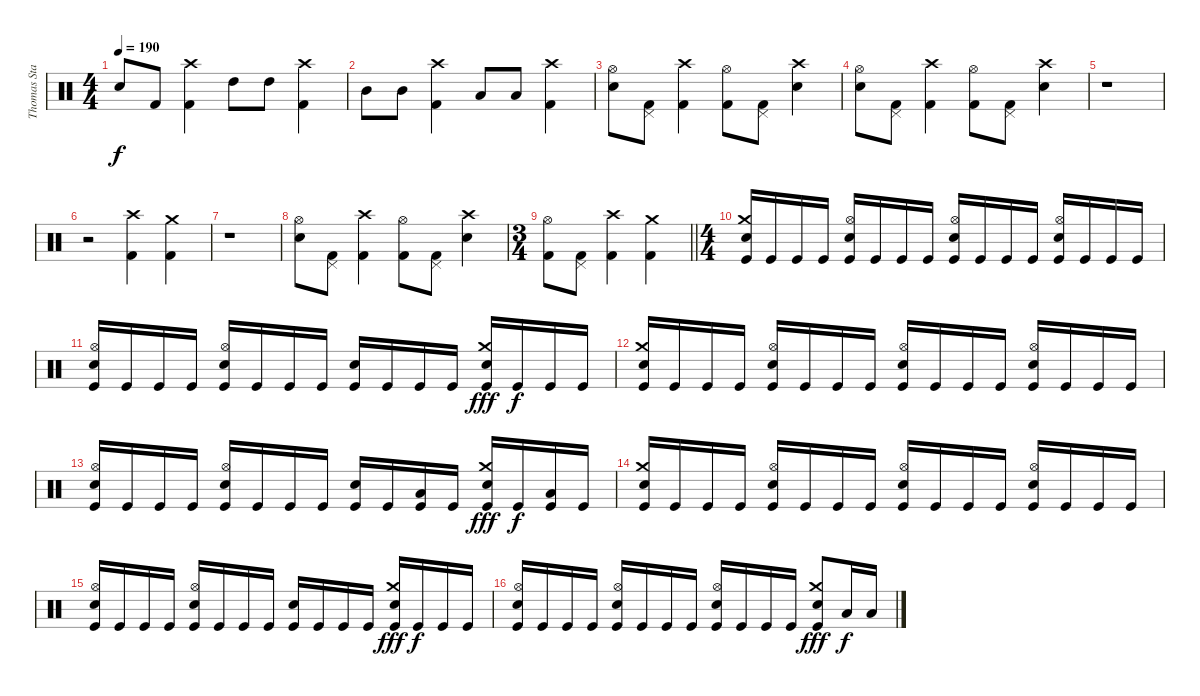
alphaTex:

\track ("Thomas Stauch" "Thomas Sta") {instrument percussion}
\staff {score}
\articulation defaults
\ts (4 4)
\tempo 190
\clef neutral
\ks c "Electric Snare (hit)".8{dy f} "Kick (hit) 2".8
("Crash high (hit)" "Kick (hit) 2").4 "High Tom (hit)".8 "High Tom (hit)".8 ("Crash high (hit)" "Kick (hit) 2").4 |
"Mid Tom (hit)".8 "Mid Tom (hit)".8 ("Crash high (hit)" "Kick (hit) 2").4 "Low Tom (hit)".8 "Low Tom (hit)".8 ("Crash high (hit)" "Kick (hit) 2").4 |
("Hi-Hat (open)" "Electric Snare (hit)").8 ("Pedal Hi-Hat (hit)" "Kick (hit) 2").8 ("Crash high (hit)" "Kick (hit) 2").4 ("Hi-Hat (open)" "Kick (hit) 2").8 ("Pedal Hi-Hat (hit)" "Kick (hit) 2").8 ("Crash high (hit)" "Electric Snare (hit)").4 |
("Hi-Hat (open)" "Electric Snare (hit)").8 ("Pedal Hi-Hat (hit)" "Kick (hit) 2").8 ("Crash high (hit)" "Kick (hit) 2").4 ("Hi-Hat (open)" "Kick (hit) 2").8 ("Pedal Hi-Hat (hit)" "Kick (hit) 2").8 ("Crash high (hit)" "Electric Snare (hit)").4 |
r.1 |
r.2 ("Crash high (hit)" "Kick (hit) 2").4 ("Crash medium (hit)" "Kick (hit) 2").4 |
r.1 |
("Hi-Hat (open)" "Electric Snare (hit)").8 ("Pedal Hi-Hat (hit)" "Kick (hit) 2").8 ("Crash high (hit)" "Kick (hit) 2").4 ("Hi-Hat (open)" "Kick (hit) 2").8 ("Pedal Hi-Hat (hit)" "Kick (hit) 2").8 ("Crash high (hit)" "Electric Snare (hit)").4 |
\ts (3 4)
\barLineRight lightlight
("Hi-Hat (open)" "Kick (hit) 2").8 ("Pedal Hi-Hat (hit)" "Kick (hit) 2").8 ("Crash high (hit)" "Kick (hit) 2").4 ("Crash medium (hit)" "Kick (hit) 2").4 |
\ts (4 4)
("Crash medium (hit)" "Electric Snare (hit)" "Kick (hit)").16 "Kick (hit)".16 "Kick (hit)".16 "Kick (hit)".16 ("Hi-Hat (open)" "Electric Snare (hit)" "Kick (hit)").16 "Kick (hit)".16 "Kick (hit)".16 "Kick (hit)".16 ("Hi-Hat (open)" "Electric Snare (hit)" "Kick (hit)").16 "Kick (hit)".16 "Kick (hit)".16 "Kick (hit)".16 ("Hi-Hat (open)" "Electric Snare (hit)" "Kick (hit)").16 "Kick (hit)".16 "Kick (hit)".16 "Kick (hit)".16 |
("Hi-Hat (open)" "Electric Snare (hit)" "Kick (hit)").16 "Kick (hit)".16 "Kick (hit)".16 "Kick (hit)".16 ("Hi-Hat (open)" "Electric Snare (hit)" "Kick (hit)").16 "Kick (hit)".16 "Kick (hit)".16 "Kick (hit)".16 ("Electric Snare (hit)" "Kick (hit)").16 "Kick (hit)".16 "Kick (hit)".16 "Kick (hit)".16 ("Crash medium (hit)" "Electric Snare (hit)" "Kick (hit)").16{dy fff} "Kick (hit)".16{dy f} "Kick (hit)".16 "Kick (hit)".16 |
("Crash medium (hit)" "Electric Snare (hit)" "Kick (hit)").16 "Kick (hit)".16 "Kick (hit)".16 "Kick (hit)".16 ("Hi-Hat (open)" "Electric Snare (hit)" "Kick (hit)").16 "Kick (hit)".16 "Kick (hit)".16 "Kick (hit)".16 ("Hi-Hat (open)" "Electric Snare (hit)" "Kick (hit)").16 "Kick (hit)".16 "Kick (hit)".16 "Kick (hit)".16 ("Hi-Hat (open)" "Electric Snare (hit)" "Kick (hit)").16 "Kick (hit)".16 "Kick (hit)".16 "Kick (hit)".16 |
("Hi-Hat (open)" "Electric Snare (hit)" "Kick (hit)").16 "Kick (hit)".16 "Kick (hit)".16 "Kick (hit)".16 ("Hi-Hat (open)" "Electric Snare (hit)" "Kick (hit)").16 "Kick (hit)".16 "Kick (hit)".16 "Kick (hit)".16 ("Electric Snare (hit)" "Kick (hit)").16 "Kick (hit)".16 ("Low Floor Tom (hit)" "Kick (hit)").16 "Kick (hit)".16 ("Crash medium (hit)" "Electric Snare (hit)" "Kick (hit)").16{dy fff} "Kick (hit)".16{dy f} ("Low Floor Tom (hit)" "Kick (hit)").16 "Kick (hit)".16 |
("Crash medium (hit)" "Electric Snare (hit)" "Kick (hit)").16 "Kick (hit)".16 "Kick (hit)".16 "Kick (hit)".16 ("Hi-Hat (open)" "Electric Snare (hit)" "Kick (hit)").16 "Kick (hit)".16 "Kick (hit)".16 "Kick (hit)".16 ("Hi-Hat (open)" "Electric Snare (hit)" "Kick (hit)").16 "Kick (hit)".16 "Kick (hit)".16 "Kick (hit)".16 ("Hi-Hat (open)" "Electric Snare (hit)" "Kick (hit)").16 "Kick (hit)".16 "Kick (hit)".16 "Kick (hit)".16 |
("Hi-Hat (open)" "Electric Snare (hit)" "Kick (hit)").16 "Kick (hit)".16 "Kick (hit)".16 "Kick (hit)".16 ("Hi-Hat (open)" "Electric Snare (hit)" "Kick (hit)").16 "Kick (hit)".16 "Kick (hit)".16 "Kick (hit)".16 ("Electric Snare (hit)" "Kick (hit)").16 "Kick (hit)".16 "Kick (hit)".16 "Kick (hit)".16 ("Crash medium (hit)" "Electric Snare (hit)" "Kick (hit)").16{dy fff} "Kick (hit)".16{dy f} "Kick (hit)".16 "Kick (hit)".16 |
("Hi-Hat (open)" "Electric Snare (hit)" "Kick (hit)").16 "Kick (hit)".16 "Kick (hit)".16 "Kick (hit)".16 ("Hi-Hat (open)" "Electric Snare (hit)" "Kick (hit)").16 "Kick (hit)".16 "Kick (hit)".16 "Kick (hit)".16 ("Hi-Hat (open)" "Electric Snare (hit)" "Kick (hit)").16 "Kick (hit)".16 "Kick (hit)".16 "Kick (hit)".16 ("Crash medium (hit)" "Electric Snare (hit)" "Kick (hit)").8{dy fff} "Low Tom (hit)".16{dy f} "Low Tom (hit)".16
